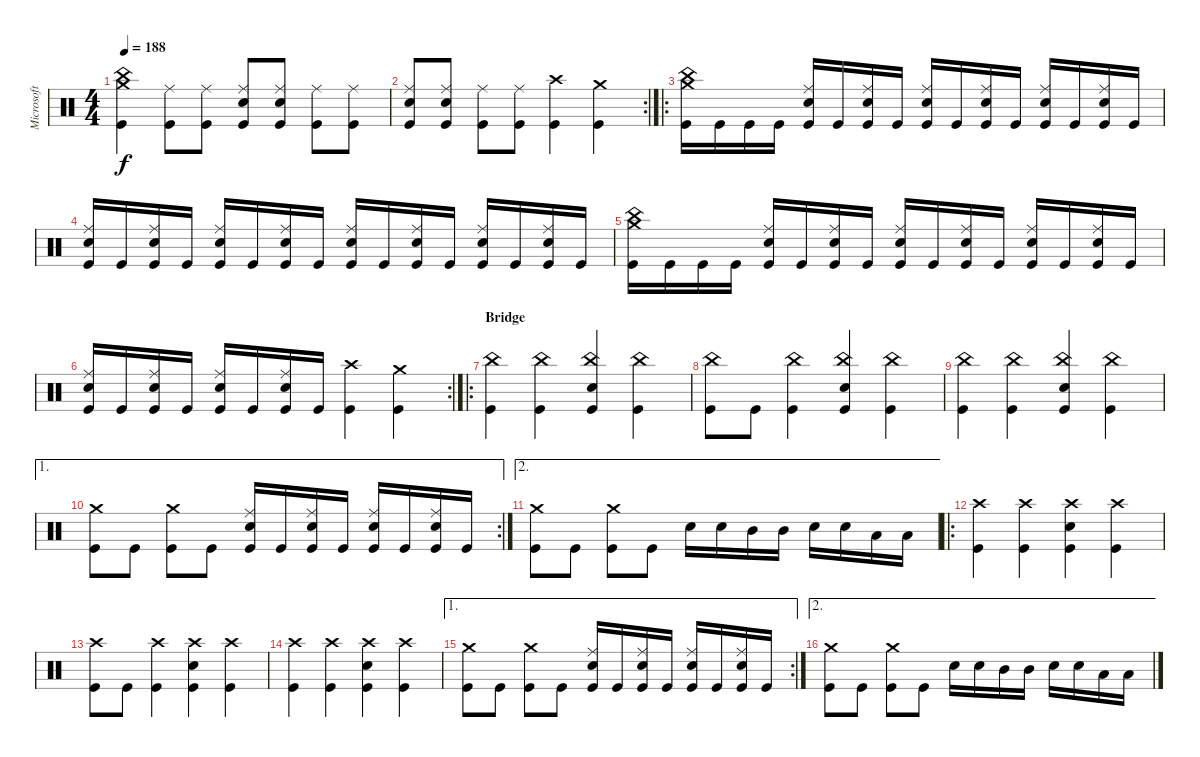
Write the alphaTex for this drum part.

\track ("Microsoft S.A.M." "Microsoft ") {instrument percussion}
\staff {score}
\articulation defaults
\ts (4 4)
\tempo 188
\clef neutral
\ks c
("Kick (hit)" "China (hit)" "Crash medium (hit)").4{dy f} ("Kick (hit)" "Ride (middle)").8 ("Kick (hit)" "Ride (middle)").8 ("Kick (hit)" "Ride (middle)" "Snare (hit) 2").8 ("Kick (hit)" "Ride (middle)" "Snare (hit) 2").8 ("Kick (hit)" "Ride (middle)").8 ("Kick (hit)" "Ride (middle)").8 |
\rc 2
("Kick (hit)" "Ride (middle)" "Snare (hit) 2").8 ("Kick (hit)" "Ride (middle)" "Snare (hit) 2").8 ("Kick (hit)" "Ride (middle)").8 ("Kick (hit)" "Ride (middle)").8 ("Kick (hit)" "Crash high (hit)").4 ("Kick (hit)" "Crash medium (hit)").4 |
\ro
("Kick (hit)" "Crash medium (hit)" "China (hit)").16 "Kick (hit)".16 "Kick (hit)".16 "Kick (hit)".16 ("Kick (hit)" "Ride (middle)" "Snare (hit) 2").16 "Kick (hit)".16 ("Kick (hit)" "Ride (middle)" "Snare (hit) 2").16 "Kick (hit)".16 ("Kick (hit)" "Ride (middle)" "Snare (hit) 2").16 "Kick (hit)".16 ("Kick (hit)" "Ride (middle)" "Snare (hit) 2").16 "Kick (hit)".16 ("Kick (hit)" "Ride (middle)" "Snare (hit) 2").16 "Kick (hit)".16 ("Kick (hit)" "Ride (middle)" "Snare (hit) 2").16 "Kick (hit)".16 |
("Kick (hit)" "Ride (middle)" "Snare (hit) 2").16 "Kick (hit)".16 ("Kick (hit)" "Ride (middle)" "Snare (hit) 2").16 "Kick (hit)".16 ("Kick (hit)" "Ride (middle)" "Snare (hit) 2").16 "Kick (hit)".16 ("Kick (hit)" "Ride (middle)" "Snare (hit) 2").16 "Kick (hit)".16 ("Kick (hit)" "Ride (middle)" "Snare (hit) 2").16 "Kick (hit)".16 ("Kick (hit)" "Ride (middle)" "Snare (hit) 2").16 "Kick (hit)".16 ("Kick (hit)" "Ride (middle)" "Snare (hit) 2").16 "Kick (hit)".16 ("Kick (hit)" "Ride (middle)" "Snare (hit) 2").16 "Kick (hit)".16 |
("Kick (hit)" "Crash medium (hit)" "China (hit)").16 "Kick (hit)".16 "Kick (hit)".16 "Kick (hit)".16 ("Kick (hit)" "Ride (middle)" "Snare (hit) 2").16 "Kick (hit)".16 ("Kick (hit)" "Ride (middle)" "Snare (hit) 2").16 "Kick (hit)".16 ("Kick (hit)" "Ride (middle)" "Snare (hit) 2").16 "Kick (hit)".16 ("Kick (hit)" "Ride (middle)" "Snare (hit) 2").16 "Kick (hit)".16 ("Kick (hit)" "Ride (middle)" "Snare (hit) 2").16 "Kick (hit)".16 ("Kick (hit)" "Ride (middle)" "Snare (hit) 2").16 "Kick (hit)".16 |
\rc 2
("Kick (hit)" "Ride (middle)" "Snare (hit) 2").16 "Kick (hit)".16 ("Kick (hit)" "Ride (middle)" "Snare (hit) 2").16 "Kick (hit)".16 ("Kick (hit)" "Ride (middle)" "Snare (hit) 2").16 "Kick (hit)".16 ("Kick (hit)" "Ride (middle)" "Snare (hit) 2").16 "Kick (hit)".16 ("Kick (hit)" "Crash high (hit)").4 ("Kick (hit)" "Crash medium (hit)").4 |
\ro
\section ("" "Bridge")
("Kick (hit)" "China (hit)").4 ("Kick (hit)" "China (hit)").4 ("Kick (hit)" "China (hit)" "Snare (hit) 2").4 ("Kick (hit)" "China (hit)").4 |
("Kick (hit)" "China (hit)").8 "Kick (hit)".8 ("Kick (hit)" "China (hit)").4 ("Kick (hit)" "China (hit)" "Snare (hit) 2").4 ("Kick (hit)" "China (hit)").4 |
("Kick (hit)" "China (hit)").4 ("Kick (hit)" "China (hit)").4 ("Kick (hit)" "China (hit)" "Snare (hit) 2").4 ("Kick (hit)" "China (hit)").4 |
\ae 1
\rc 2
("Kick (hit)" "Crash medium (hit)").8 "Kick (hit)".8 ("Kick (hit)" "Crash medium (hit)").8 "Kick (hit)".8 ("Kick (hit)" "Ride (middle)" "Snare (hit) 2").16 "Kick (hit)".16 ("Kick (hit)" "Ride (middle)" "Snare (hit) 2").16 "Kick (hit)".16 ("Kick (hit)" "Ride (middle)" "Snare (hit) 2").16 "Kick (hit)".16 ("Kick (hit)" "Ride (middle)" "Snare (hit) 2").16 "Kick (hit)".16 |
\ae 2
("Kick (hit)" "Crash medium (hit)").8 "Kick (hit)".8 ("Kick (hit)" "Crash medium (hit)").8 "Kick (hit)".8 "Snare (hit) 2".16 "Snare (hit) 2".16 "Mid Tom (hit)".16 "Mid Tom (hit)".16 "Snare (hit) 2".16 "Snare (hit) 2".16 "Low Tom (hit)".16 "Low Tom (hit)".16 |
\ro
("Kick (hit)" "Crash high (hit)").4 ("Kick (hit)" "Crash high (hit)").4 ("Kick (hit)" "Snare (hit) 2" "Crash high (hit)").4 ("Kick (hit)" "Crash high (hit)").4 |
("Kick (hit)" "Crash high (hit)").8 "Kick (hit)".8 ("Kick (hit)" "Crash high (hit)").4 ("Kick (hit)" "Snare (hit) 2" "Crash high (hit)").4 ("Kick (hit)" "Crash high (hit)").4 |
("Kick (hit)" "Crash high (hit)").4 ("Kick (hit)" "Crash high (hit)").4 ("Kick (hit)" "Snare (hit) 2" "Crash high (hit)").4 ("Kick (hit)" "Crash high (hit)").4 |
\ae 1
\rc 2
("Kick (hit)" "Crash medium (hit)").8 "Kick (hit)".8 ("Kick (hit)" "Crash medium (hit)").8 "Kick (hit)".8 ("Kick (hit)" "Ride (middle)" "Snare (hit) 2").16 "Kick (hit)".16 ("Kick (hit)" "Ride (middle)" "Snare (hit) 2").16 "Kick (hit)".16 ("Kick (hit)" "Ride (middle)" "Snare (hit) 2").16 "Kick (hit)".16 ("Kick (hit)" "Ride (middle)" "Snare (hit) 2").16 "Kick (hit)".16 |
\ae 2
("Kick (hit)" "Crash medium (hit)").8 "Kick (hit)".8 ("Kick (hit)" "Crash medium (hit)").8 "Kick (hit)".8 "Snare (hit) 2".16 "Snare (hit) 2".16 "Mid Tom (hit)".16 "Mid Tom (hit)".16 "Snare (hit) 2".16 "Snare (hit) 2".16 "Low Tom (hit)".16 "Low Tom (hit)".16
